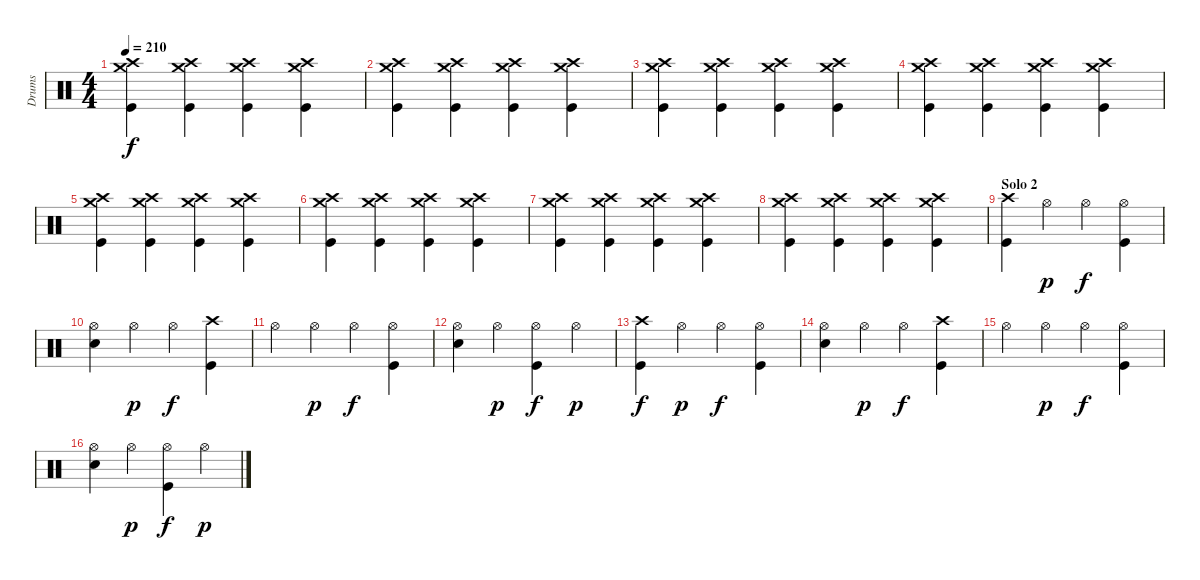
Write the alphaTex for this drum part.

\track ("Drums" "Drums") {instrument percussion}
\staff {score}
\articulation defaults
\ts (4 4)
\tempo 210
\clef neutral
\ks c
("Crash high (hit)" "Crash medium (hit)" "Kick (hit)").4{dy f} ("Crash high (hit)" "Crash medium (hit)" "Kick (hit)").4 ("Crash high (hit)" "Crash medium (hit)" "Kick (hit)").4 ("Crash high (hit)" "Crash medium (hit)" "Kick (hit)").4 |
("Crash high (hit)" "Crash medium (hit)" "Kick (hit)").4 ("Crash high (hit)" "Crash medium (hit)" "Kick (hit)").4 ("Crash high (hit)" "Crash medium (hit)" "Kick (hit)").4 ("Crash high (hit)" "Crash medium (hit)" "Kick (hit)").4 |
("Crash high (hit)" "Crash medium (hit)" "Kick (hit)").4 ("Crash high (hit)" "Crash medium (hit)" "Kick (hit)").4 ("Crash high (hit)" "Crash medium (hit)" "Kick (hit)").4 ("Crash high (hit)" "Crash medium (hit)" "Kick (hit)").4 |
("Crash high (hit)" "Crash medium (hit)" "Kick (hit)").4 ("Crash high (hit)" "Crash medium (hit)" "Kick (hit)").4 ("Crash high (hit)" "Crash medium (hit)" "Kick (hit)").4 ("Crash high (hit)" "Crash medium (hit)" "Kick (hit)").4 |
("Crash high (hit)" "Crash medium (hit)" "Kick (hit)").4 ("Crash high (hit)" "Crash medium (hit)" "Kick (hit)").4 ("Crash high (hit)" "Crash medium (hit)" "Kick (hit)").4 ("Crash high (hit)" "Crash medium (hit)" "Kick (hit)").4 |
("Crash high (hit)" "Crash medium (hit)" "Kick (hit)").4 ("Crash high (hit)" "Crash medium (hit)" "Kick (hit)").4 ("Crash high (hit)" "Crash medium (hit)" "Kick (hit)").4 ("Crash high (hit)" "Crash medium (hit)" "Kick (hit)").4 |
("Crash high (hit)" "Crash medium (hit)" "Kick (hit)").4 ("Crash high (hit)" "Crash medium (hit)" "Kick (hit)").4 ("Crash high (hit)" "Crash medium (hit)" "Kick (hit)").4 ("Crash high (hit)" "Crash medium (hit)" "Kick (hit)").4 |
("Crash high (hit)" "Crash medium (hit)" "Kick (hit)").4 ("Crash high (hit)" "Crash medium (hit)" "Kick (hit)").4 ("Crash high (hit)" "Crash medium (hit)" "Kick (hit)").4 ("Crash high (hit)" "Crash medium (hit)" "Kick (hit)").4 |
\section ("" "Solo 2")
("Crash high (hit)" "Kick (hit)").4 "Hi-Hat (open)".4{dy p} "Hi-Hat (open)".4{dy f} ("Hi-Hat (open)" "Kick (hit)").4 |
("Hi-Hat (open)" "Snare (hit) 2").4 "Hi-Hat (open)".4{dy p} "Hi-Hat (open)".4{dy f} ("Crash high (hit)" "Kick (hit)").4 |
"Hi-Hat (open)".4 "Hi-Hat (open)".4{dy p} "Hi-Hat (open)".4{dy f} ("Hi-Hat (open)" "Kick (hit)").4 |
("Hi-Hat (open)" "Snare (hit) 2").4 "Hi-Hat (open)".4{dy p} ("Hi-Hat (open)" "Kick (hit)").4{dy f} "Hi-Hat (open)".4{dy p} |
("Crash high (hit)" "Kick (hit)").4{dy f} "Hi-Hat (open)".4{dy p} "Hi-Hat (open)".4{dy f} ("Hi-Hat (open)" "Kick (hit)").4 |
("Hi-Hat (open)" "Snare (hit) 2").4 "Hi-Hat (open)".4{dy p} "Hi-Hat (open)".4{dy f} ("Crash high (hit)" "Kick (hit)").4 |
"Hi-Hat (open)".4 "Hi-Hat (open)".4{dy p} "Hi-Hat (open)".4{dy f} ("Hi-Hat (open)" "Kick (hit)").4 |
("Hi-Hat (open)" "Snare (hit) 2").4 "Hi-Hat (open)".4{dy p} ("Hi-Hat (open)" "Kick (hit)").4{dy f} "Hi-Hat (open)".4{dy p}
